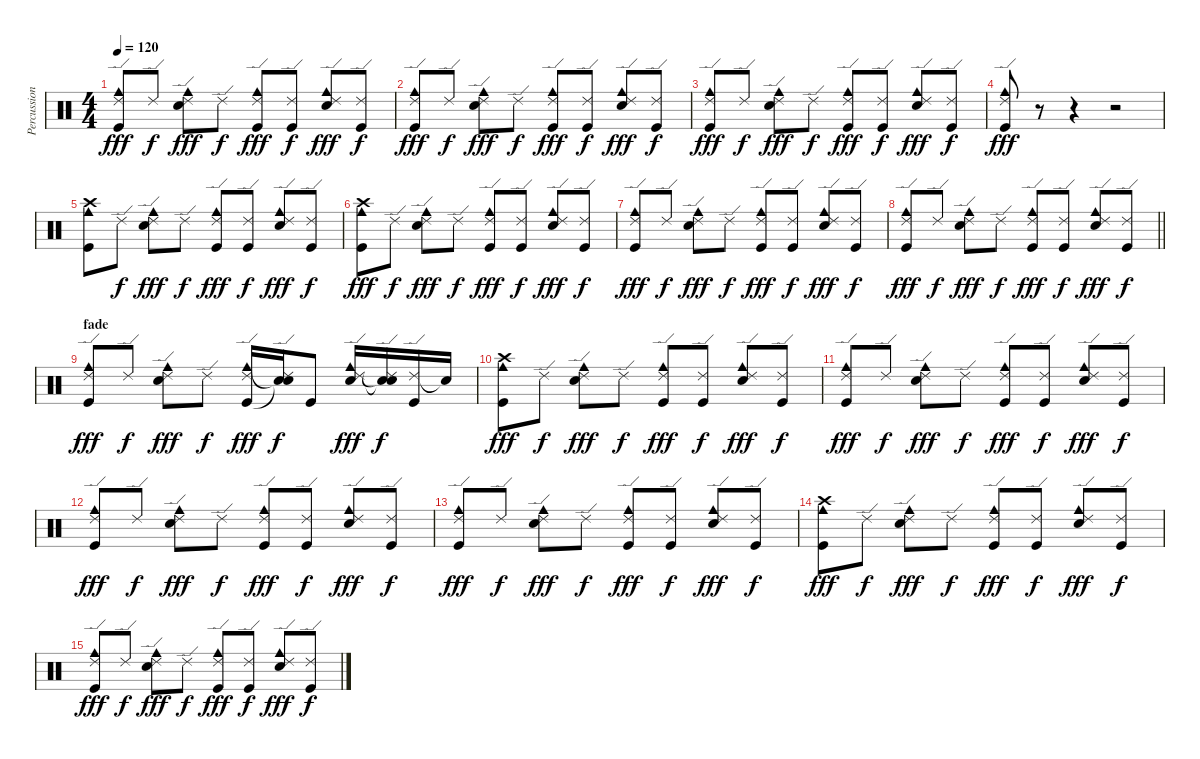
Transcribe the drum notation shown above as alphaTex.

\track ("Percussion" "Percussion") {instrument percussion}
\staff {score}
\articulation defaults
\ts (4 4)
\tempo 120
\clef neutral
\ks c
("Ride (edge) 2" "Cowbell medium (hit)" "Kick (hit)").8{dy fff} "Ride (edge) 2".8{dy f} ("Ride (edge) 2" "Cowbell medium (hit)" "Snare (hit) 2").8{dy fff} "Ride (edge) 2".8{dy f} ("Ride (edge) 2" "Cowbell medium (hit)" "Kick (hit)").8{dy fff} ("Ride (edge) 2" "Kick (hit)").8{dy f} ("Ride (edge) 2" "Cowbell medium (hit)" "Snare (hit) 2").8{dy fff} ("Ride (edge) 2" "Kick (hit)").8{dy f} |
("Ride (edge) 2" "Cowbell medium (hit)" "Kick (hit)").8{dy fff} "Ride (edge) 2".8{dy f} ("Ride (edge) 2" "Cowbell medium (hit)" "Snare (hit) 2").8{dy fff} "Ride (edge) 2".8{dy f} ("Ride (edge) 2" "Cowbell medium (hit)" "Kick (hit)").8{dy fff} ("Ride (edge) 2" "Kick (hit)").8{dy f} ("Ride (edge) 2" "Cowbell medium (hit)" "Snare (hit) 2").8{dy fff} ("Ride (edge) 2" "Kick (hit)").8{dy f} |
("Ride (edge) 2" "Cowbell medium (hit)" "Kick (hit)").8{dy fff} "Ride (edge) 2".8{dy f} ("Ride (edge) 2" "Cowbell medium (hit)" "Snare (hit) 2").8{dy fff} "Ride (edge) 2".8{dy f} ("Ride (edge) 2" "Cowbell medium (hit)" "Kick (hit)").8{dy fff} ("Ride (edge) 2" "Kick (hit)").8{dy f} ("Ride (edge) 2" "Cowbell medium (hit)" "Snare (hit) 2").8{dy fff} ("Ride (edge) 2" "Kick (hit)").8{dy f} |
("Ride (edge) 2" "Cowbell medium (hit)" "Kick (hit)").8{dy fff} r.8 r.4 r.2 |
("Crash high (hit)" "Cowbell medium (hit)" "Kick (hit)").8 "Ride (edge) 2".8{dy f} ("Ride (edge) 2" "Cowbell medium (hit)" "Snare (hit) 2").8{dy fff} "Ride (edge) 2".8{dy f} ("Ride (edge) 2" "Cowbell medium (hit)" "Kick (hit)").8{dy fff} ("Ride (edge) 2" "Kick (hit)").8{dy f} ("Ride (edge) 2" "Cowbell medium (hit)" "Snare (hit) 2").8{dy fff} ("Ride (edge) 2" "Kick (hit)").8{dy f} |
("Crash high (hit)" "Cowbell medium (hit)" "Kick (hit)").8{dy fff} "Ride (edge) 2".8{dy f} ("Ride (edge) 2" "Cowbell medium (hit)" "Snare (hit) 2").8{dy fff} "Ride (edge) 2".8{dy f} ("Ride (edge) 2" "Cowbell medium (hit)" "Kick (hit)").8{dy fff} ("Ride (edge) 2" "Kick (hit)").8{dy f} ("Ride (edge) 2" "Cowbell medium (hit)" "Snare (hit) 2").8{dy fff} ("Ride (edge) 2" "Kick (hit)").8{dy f} |
("Ride (edge) 2" "Cowbell medium (hit)" "Kick (hit)").8{dy fff} "Ride (edge) 2".8{dy f} ("Ride (edge) 2" "Cowbell medium (hit)" "Snare (hit) 2").8{dy fff} "Ride (edge) 2".8{dy f} ("Ride (edge) 2" "Cowbell medium (hit)" "Kick (hit)").8{dy fff} ("Ride (edge) 2" "Kick (hit)").8{dy f} ("Ride (edge) 2" "Cowbell medium (hit)" "Snare (hit) 2").8{dy fff} ("Ride (edge) 2" "Kick (hit)").8{dy f} |
\barLineRight lightlight
("Ride (edge) 2" "Cowbell medium (hit)" "Kick (hit)").8{dy fff} "Ride (edge) 2".8{dy f} ("Ride (edge) 2" "Cowbell medium (hit)" "Snare (hit) 2").8{dy fff} "Ride (edge) 2".8{dy f} ("Ride (edge) 2" "Cowbell medium (hit)" "Kick (hit)").8{dy fff} ("Ride (edge) 2" "Kick (hit)").8{dy f} ("Ride (edge) 2" "Cowbell medium (hit)" "Snare (hit) 2").8{dy fff} ("Ride (edge) 2" "Kick (hit)").8{dy f} |
\section ("" "fade")
("Ride (edge) 2" "Cowbell medium (hit)" "Kick (hit)").8{dy fff volume 11} "Ride (edge) 2".8{dy f} ("Ride (edge) 2" "Cowbell medium (hit)" "Snare (hit) 2").8{dy fff} "Ride (edge) 2".8{dy f} ("Ride (edge) 2" "Cowbell medium (hit)" "Kick (hit)").16{dy fff} ("Ride (edge) 2" "Snare (hit)"{t} "Snare (hit)"{t}).16{dy f} "Kick (hit)".8 ("Ride (edge) 2" "Cowbell medium (hit)" "Snare (hit) 2").16{dy fff} ("Ride (edge) 2" "Snare (hit)"{t} "Snare (hit)"{t}).16{dy f} ("Ride (edge) 2" "Kick (hit)").16 "Snare (hit)"{t}.16 |
("Crash high (hit)" "Cowbell medium (hit)" "Kick (hit)").8{dy fff volume 9} "Ride (edge) 2".8{dy f} ("Ride (edge) 2" "Cowbell medium (hit)" "Snare (hit) 2").8{dy fff} "Ride (edge) 2".8{dy f} ("Ride (edge) 2" "Cowbell medium (hit)" "Kick (hit)").8{dy fff} ("Ride (edge) 2" "Kick (hit)").8{dy f} ("Ride (edge) 2" "Cowbell medium (hit)" "Snare (hit) 2").8{dy fff} ("Ride (edge) 2" "Kick (hit)").8{dy f} |
("Ride (edge) 2" "Cowbell medium (hit)" "Kick (hit)").8{dy fff volume 7} "Ride (edge) 2".8{dy f} ("Ride (edge) 2" "Cowbell medium (hit)" "Snare (hit) 2").8{dy fff} "Ride (edge) 2".8{dy f} ("Ride (edge) 2" "Cowbell medium (hit)" "Kick (hit)").8{dy fff} ("Ride (edge) 2" "Kick (hit)").8{dy f} ("Ride (edge) 2" "Cowbell medium (hit)" "Snare (hit) 2").8{dy fff} ("Ride (edge) 2" "Kick (hit)").8{dy f} |
("Ride (edge) 2" "Cowbell medium (hit)" "Kick (hit)").8{dy fff volume 5} "Ride (edge) 2".8{dy f} ("Ride (edge) 2" "Cowbell medium (hit)" "Snare (hit) 2").8{dy fff} "Ride (edge) 2".8{dy f} ("Ride (edge) 2" "Cowbell medium (hit)" "Kick (hit)").8{dy fff} ("Ride (edge) 2" "Kick (hit)").8{dy f} ("Ride (edge) 2" "Cowbell medium (hit)" "Snare (hit) 2").8{dy fff} ("Ride (edge) 2" "Kick (hit)").8{dy f} |
("Ride (edge) 2" "Cowbell medium (hit)" "Kick (hit)").8{dy fff volume 4} "Ride (edge) 2".8{dy f} ("Ride (edge) 2" "Cowbell medium (hit)" "Snare (hit) 2").8{dy fff} "Ride (edge) 2".8{dy f} ("Ride (edge) 2" "Cowbell medium (hit)" "Kick (hit)").8{dy fff} ("Ride (edge) 2" "Kick (hit)").8{dy f} ("Ride (edge) 2" "Cowbell medium (hit)" "Snare (hit) 2").8{dy fff} ("Ride (edge) 2" "Kick (hit)").8{dy f} |
("Crash high (hit)" "Cowbell medium (hit)" "Kick (hit)").8{dy fff volume 3} "Ride (edge) 2".8{dy f} ("Ride (edge) 2" "Cowbell medium (hit)" "Snare (hit) 2").8{dy fff} "Ride (edge) 2".8{dy f} ("Ride (edge) 2" "Cowbell medium (hit)" "Kick (hit)").8{dy fff} ("Ride (edge) 2" "Kick (hit)").8{dy f} ("Ride (edge) 2" "Cowbell medium (hit)" "Snare (hit) 2").8{dy fff} ("Ride (edge) 2" "Kick (hit)").8{dy f} |
("Ride (edge) 2" "Cowbell medium (hit)" "Kick (hit)").8{dy fff volume 1} "Ride (edge) 2".8{dy f} ("Ride (edge) 2" "Cowbell medium (hit)" "Snare (hit) 2").8{dy fff} "Ride (edge) 2".8{dy f} ("Ride (edge) 2" "Cowbell medium (hit)" "Kick (hit)").8{dy fff} ("Ride (edge) 2" "Kick (hit)").8{dy f} ("Ride (edge) 2" "Cowbell medium (hit)" "Snare (hit) 2").8{dy fff} ("Ride (edge) 2" "Kick (hit)").8{dy f}
